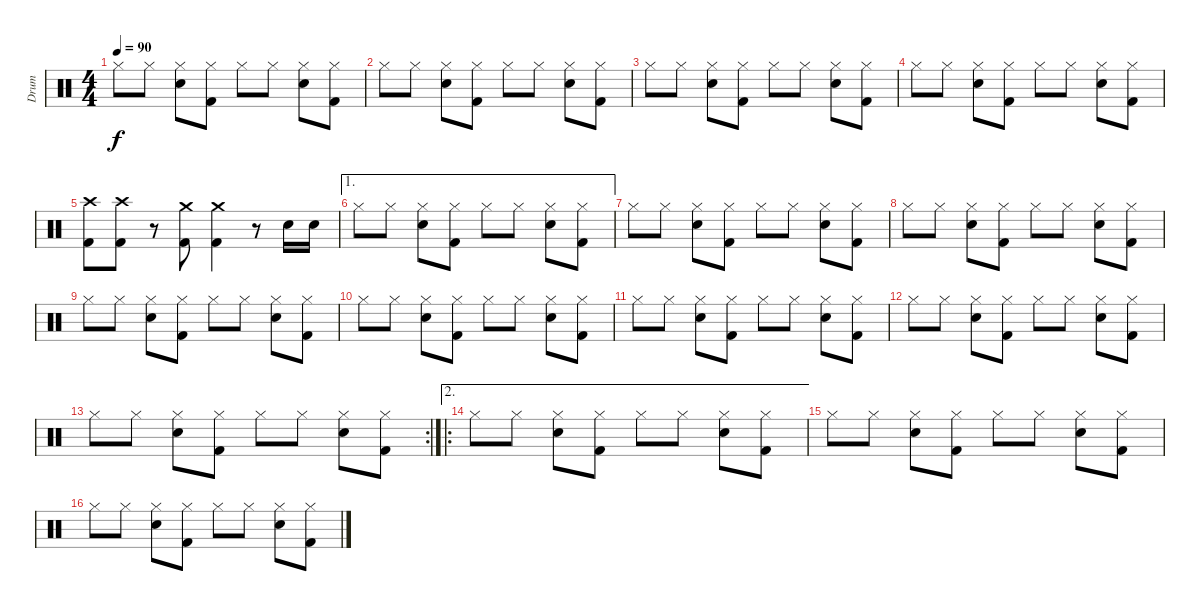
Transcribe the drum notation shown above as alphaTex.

\track ("Drum" "Drum") {instrument percussion}
\staff {score}
\articulation defaults
\ts (4 4)
\tempo 90
\clef neutral
\ks c "Hi-Hat (closed)".8{dy f} "Hi-Hat (closed)".8
("Hi-Hat (closed)" "Snare (hit) 2").8 ("Hi-Hat (closed)" "Kick (hit) 2").8 "Hi-Hat (closed)".8 "Hi-Hat (closed)".8 ("Hi-Hat (closed)" "Snare (hit) 2").8 ("Hi-Hat (closed)" "Kick (hit) 2").8 |
"Hi-Hat (closed)".8 "Hi-Hat (closed)".8 ("Hi-Hat (closed)" "Snare (hit) 2").8 ("Hi-Hat (closed)" "Kick (hit) 2").8 "Hi-Hat (closed)".8 "Hi-Hat (closed)".8 ("Hi-Hat (closed)" "Snare (hit) 2").8 ("Hi-Hat (closed)" "Kick (hit) 2").8 |
"Hi-Hat (closed)".8 "Hi-Hat (closed)".8 ("Hi-Hat (closed)" "Snare (hit) 2").8 ("Hi-Hat (closed)" "Kick (hit) 2").8 "Hi-Hat (closed)".8 "Hi-Hat (closed)".8 ("Hi-Hat (closed)" "Snare (hit) 2").8 ("Hi-Hat (closed)" "Kick (hit) 2").8 |
"Hi-Hat (closed)".8 "Hi-Hat (closed)".8 ("Hi-Hat (closed)" "Snare (hit) 2").8 ("Hi-Hat (closed)" "Kick (hit) 2").8 "Hi-Hat (closed)".8 "Hi-Hat (closed)".8 ("Hi-Hat (closed)" "Snare (hit) 2").8 ("Hi-Hat (closed)" "Kick (hit) 2").8 |
("Crash high (hit)" "Kick (hit) 2").8 ("Crash high (hit)" "Kick (hit) 2").8 r.8 ("Crash medium (hit)" "Kick (hit) 2").8 ("Crash medium (hit)" "Kick (hit) 2").4 r.8 "Snare (hit) 2".16 "Snare (hit) 2".16 |
\ae 1 "Hi-Hat (closed)".8 "Hi-Hat (closed)".8
("Hi-Hat (closed)" "Snare (hit) 2").8 ("Hi-Hat (closed)" "Kick (hit) 2").8 "Hi-Hat (closed)".8 "Hi-Hat (closed)".8 ("Hi-Hat (closed)" "Snare (hit) 2").8 ("Hi-Hat (closed)" "Kick (hit) 2").8 |
"Hi-Hat (closed)".8 "Hi-Hat (closed)".8 ("Hi-Hat (closed)" "Snare (hit) 2").8 ("Hi-Hat (closed)" "Kick (hit) 2").8 "Hi-Hat (closed)".8 "Hi-Hat (closed)".8 ("Hi-Hat (closed)" "Snare (hit) 2").8 ("Hi-Hat (closed)" "Kick (hit) 2").8 |
"Hi-Hat (closed)".8 "Hi-Hat (closed)".8 ("Hi-Hat (closed)" "Snare (hit) 2").8 ("Hi-Hat (closed)" "Kick (hit) 2").8 "Hi-Hat (closed)".8 "Hi-Hat (closed)".8 ("Hi-Hat (closed)" "Snare (hit) 2").8 ("Hi-Hat (closed)" "Kick (hit) 2").8 |
"Hi-Hat (closed)".8 "Hi-Hat (closed)".8 ("Hi-Hat (closed)" "Snare (hit) 2").8 ("Hi-Hat (closed)" "Kick (hit) 2").8 "Hi-Hat (closed)".8 "Hi-Hat (closed)".8 ("Hi-Hat (closed)" "Snare (hit) 2").8 ("Hi-Hat (closed)" "Kick (hit) 2").8 |
"Hi-Hat (closed)".8 "Hi-Hat (closed)".8 ("Hi-Hat (closed)" "Snare (hit) 2").8 ("Hi-Hat (closed)" "Kick (hit) 2").8 "Hi-Hat (closed)".8 "Hi-Hat (closed)".8 ("Hi-Hat (closed)" "Snare (hit) 2").8 ("Hi-Hat (closed)" "Kick (hit) 2").8 |
"Hi-Hat (closed)".8 "Hi-Hat (closed)".8 ("Hi-Hat (closed)" "Snare (hit) 2").8 ("Hi-Hat (closed)" "Kick (hit) 2").8 "Hi-Hat (closed)".8 "Hi-Hat (closed)".8 ("Hi-Hat (closed)" "Snare (hit) 2").8 ("Hi-Hat (closed)" "Kick (hit) 2").8 |
"Hi-Hat (closed)".8 "Hi-Hat (closed)".8 ("Hi-Hat (closed)" "Snare (hit) 2").8 ("Hi-Hat (closed)" "Kick (hit) 2").8 "Hi-Hat (closed)".8 "Hi-Hat (closed)".8 ("Hi-Hat (closed)" "Snare (hit) 2").8 ("Hi-Hat (closed)" "Kick (hit) 2").8 |
\rc 2 "Hi-Hat (closed)".8 "Hi-Hat (closed)".8
("Hi-Hat (closed)" "Snare (hit) 2").8 ("Hi-Hat (closed)" "Kick (hit) 2").8 "Hi-Hat (closed)".8 "Hi-Hat (closed)".8 ("Hi-Hat (closed)" "Snare (hit) 2").8 ("Hi-Hat (closed)" "Kick (hit) 2").8 |
\ae 2
\ro "Hi-Hat (closed)".8 "Hi-Hat (closed)".8
("Hi-Hat (closed)" "Snare (hit) 2").8 ("Hi-Hat (closed)" "Kick (hit) 2").8 "Hi-Hat (closed)".8 "Hi-Hat (closed)".8 ("Hi-Hat (closed)" "Snare (hit) 2").8 ("Hi-Hat (closed)" "Kick (hit) 2").8 |
"Hi-Hat (closed)".8 "Hi-Hat (closed)".8 ("Hi-Hat (closed)" "Snare (hit) 2").8 ("Hi-Hat (closed)" "Kick (hit) 2").8 "Hi-Hat (closed)".8 "Hi-Hat (closed)".8 ("Hi-Hat (closed)" "Snare (hit) 2").8 ("Hi-Hat (closed)" "Kick (hit) 2").8 |
"Hi-Hat (closed)".8 "Hi-Hat (closed)".8 ("Hi-Hat (closed)" "Snare (hit) 2").8 ("Hi-Hat (closed)" "Kick (hit) 2").8 "Hi-Hat (closed)".8 "Hi-Hat (closed)".8 ("Hi-Hat (closed)" "Snare (hit) 2").8 ("Hi-Hat (closed)" "Kick (hit) 2").8
